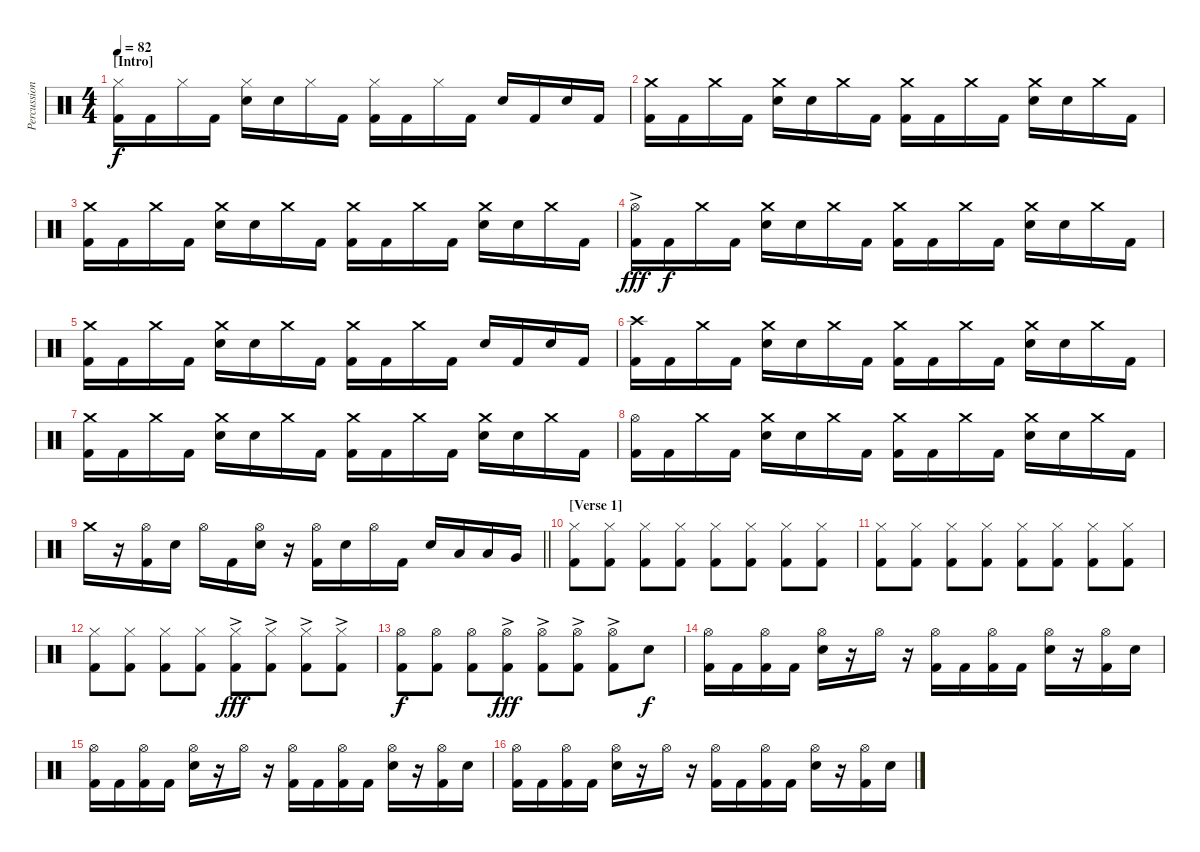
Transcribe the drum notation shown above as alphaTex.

\track ("Percussion" "Percussion") {instrument percussion}
\staff {score}
\articulation defaults
\ts (4 4)
\section ("" "[Intro]")
\tempo 82
\clef neutral
\ks c
("Hi-Hat (closed)" "Kick (hit) 2").16{dy f} "Kick (hit) 2".16 "Hi-Hat (closed)".16 "Kick (hit) 2".16 ("Hi-Hat (closed)" "Electric Snare (hit)").16 "Electric Snare (hit)".16 "Hi-Hat (closed)".16 "Kick (hit) 2".16 ("Hi-Hat (closed)" "Kick (hit) 2").16 "Kick (hit) 2".16 "Hi-Hat (closed)".16 "Kick (hit) 2".16 "Electric Snare (hit)".16 "Kick (hit) 2".16 "Electric Snare (hit)".16 "Kick (hit) 2".16 |
("Crash medium (hit)" "Kick (hit) 2").16 "Kick (hit) 2".16 "Crash medium (hit)".16 "Kick (hit) 2".16 ("Crash medium (hit)" "Electric Snare (hit)").16 "Electric Snare (hit)".16 "Crash medium (hit)".16 "Kick (hit) 2".16 ("Crash medium (hit)" "Kick (hit) 2").16 "Kick (hit) 2".16 "Crash medium (hit)".16 "Kick (hit) 2".16 ("Crash medium (hit)" "Electric Snare (hit)").16 "Electric Snare (hit)".16 "Crash medium (hit)".16 "Kick (hit) 2".16 |
("Crash medium (hit)" "Kick (hit) 2").16 "Kick (hit) 2".16 "Crash medium (hit)".16 "Kick (hit) 2".16 ("Crash medium (hit)" "Electric Snare (hit)").16 "Electric Snare (hit)".16 "Crash medium (hit)".16 "Kick (hit) 2".16 ("Crash medium (hit)" "Kick (hit) 2").16 "Kick (hit) 2".16 "Crash medium (hit)".16 "Kick (hit) 2".16 ("Crash medium (hit)" "Electric Snare (hit)").16 "Electric Snare (hit)".16 "Crash medium (hit)".16 "Kick (hit) 2".16 |
("Hi-Hat (open)"{ac} "Kick (hit) 2").16{dy fff} "Kick (hit) 2".16{dy f} "Crash medium (hit)".16 "Kick (hit) 2".16 ("Crash medium (hit)" "Electric Snare (hit)").16 "Electric Snare (hit)".16 "Crash medium (hit)".16 "Kick (hit) 2".16 ("Crash medium (hit)" "Kick (hit) 2").16 "Kick (hit) 2".16 "Crash medium (hit)".16 "Kick (hit) 2".16 ("Crash medium (hit)" "Electric Snare (hit)").16 "Electric Snare (hit)".16 "Crash medium (hit)".16 "Kick (hit) 2".16 |
("Crash medium (hit)" "Kick (hit) 2").16 "Kick (hit) 2".16 "Crash medium (hit)".16 "Kick (hit) 2".16 ("Crash medium (hit)" "Electric Snare (hit)").16 "Electric Snare (hit)".16 "Crash medium (hit)".16 "Kick (hit) 2".16 ("Crash medium (hit)" "Kick (hit) 2").16 "Kick (hit) 2".16 "Crash medium (hit)".16 "Kick (hit) 2".16 "Electric Snare (hit)".16 "Kick (hit) 2".16 "Electric Snare (hit)".16 "Kick (hit) 2".16 |
("Crash high (hit)" "Kick (hit) 2").16 "Kick (hit) 2".16 "Crash medium (hit)".16 "Kick (hit) 2".16 ("Crash medium (hit)" "Electric Snare (hit)").16 "Electric Snare (hit)".16 "Crash medium (hit)".16 "Kick (hit) 2".16 ("Crash medium (hit)" "Kick (hit) 2").16 "Kick (hit) 2".16 "Crash medium (hit)".16 "Kick (hit) 2".16 ("Crash medium (hit)" "Electric Snare (hit)").16 "Electric Snare (hit)".16 "Crash medium (hit)".16 "Kick (hit) 2".16 |
("Crash medium (hit)" "Kick (hit) 2").16 "Kick (hit) 2".16 "Crash medium (hit)".16 "Kick (hit) 2".16 ("Crash medium (hit)" "Electric Snare (hit)").16 "Electric Snare (hit)".16 "Crash medium (hit)".16 "Kick (hit) 2".16 ("Crash medium (hit)" "Kick (hit) 2").16 "Kick (hit) 2".16 "Crash medium (hit)".16 "Kick (hit) 2".16 ("Crash medium (hit)" "Electric Snare (hit)").16 "Electric Snare (hit)".16 "Crash medium (hit)".16 "Kick (hit) 2".16 |
("Hi-Hat (open)" "Kick (hit) 2").16 "Kick (hit) 2".16 "Crash medium (hit)".16 "Kick (hit) 2".16 ("Crash medium (hit)" "Electric Snare (hit)").16 "Electric Snare (hit)".16 "Crash medium (hit)".16 "Kick (hit) 2".16 ("Crash medium (hit)" "Kick (hit) 2").16 "Kick (hit) 2".16 "Crash medium (hit)".16 "Kick (hit) 2".16 ("Crash medium (hit)" "Electric Snare (hit)").16 "Electric Snare (hit)".16 "Crash medium (hit)".16 "Kick (hit) 2".16 |
\barLineRight lightlight "Crash medium (hit)".16
r.16 ("Hi-Hat (open)" "Kick (hit) 2").16 "Electric Snare (hit)".16 "Hi-Hat (open)".16 "Kick (hit) 2".16 ("Hi-Hat (open)" "Electric Snare (hit)").16 r.16 ("Hi-Hat (open)" "Kick (hit) 2").16 "Electric Snare (hit)".16 "Hi-Hat (open)".16 "Kick (hit) 2".16 "Electric Snare (hit)".16 "Low Tom (hit)".16 "Low Floor Tom (hit)".16 "Very Low Tom (hit)".16 |
\section ("" "[Verse 1]")
("Hi-Hat (closed)" "Kick (hit) 2").8 ("Hi-Hat (closed)" "Kick (hit) 2").8 ("Hi-Hat (closed)" "Kick (hit) 2").8 ("Hi-Hat (closed)" "Kick (hit) 2").8 ("Hi-Hat (closed)" "Kick (hit) 2").8 ("Hi-Hat (closed)" "Kick (hit) 2").8 ("Hi-Hat (closed)" "Kick (hit) 2").8 ("Hi-Hat (closed)" "Kick (hit) 2").8 |
("Hi-Hat (closed)" "Kick (hit) 2").8 ("Hi-Hat (closed)" "Kick (hit) 2").8 ("Hi-Hat (closed)" "Kick (hit) 2").8 ("Hi-Hat (closed)" "Kick (hit) 2").8 ("Hi-Hat (closed)" "Kick (hit) 2").8 ("Hi-Hat (closed)" "Kick (hit) 2").8 ("Hi-Hat (closed)" "Kick (hit) 2").8 ("Hi-Hat (closed)" "Kick (hit) 2").8 |
("Hi-Hat (closed)" "Kick (hit) 2").8 ("Hi-Hat (closed)" "Kick (hit) 2").8 ("Hi-Hat (closed)" "Kick (hit) 2").8 ("Hi-Hat (closed)" "Kick (hit) 2").8 ("Hi-Hat (closed)"{ac} "Kick (hit) 2").8{dy fff} ("Hi-Hat (closed)"{ac} "Kick (hit) 2").8 ("Hi-Hat (closed)"{ac} "Kick (hit) 2").8 ("Hi-Hat (closed)"{ac} "Kick (hit) 2").8 |
("Hi-Hat (open)" "Kick (hit) 2").8{dy f} ("Hi-Hat (open)" "Kick (hit) 2").8 ("Hi-Hat (open)" "Kick (hit) 2").8 ("Hi-Hat (open)"{ac} "Kick (hit) 2").8{dy fff} ("Hi-Hat (open)"{ac} "Kick (hit) 2").8 ("Hi-Hat (open)"{ac} "Kick (hit) 2").8 ("Hi-Hat (open)"{ac} "Kick (hit) 2").8 "Electric Snare (hit)".8{dy f} |
("Hi-Hat (open)" "Kick (hit) 2").16 "Kick (hit) 2".16 ("Hi-Hat (open)" "Kick (hit) 2").16 "Kick (hit) 2".16 ("Hi-Hat (open)" "Electric Snare (hit)").16 r.16 "Hi-Hat (open)".16 r.16 ("Hi-Hat (open)" "Kick (hit) 2").16 "Kick (hit) 2".16 ("Hi-Hat (open)" "Kick (hit) 2").16 "Kick (hit) 2".16 ("Hi-Hat (open)" "Electric Snare (hit)").16 r.16 ("Hi-Hat (open)" "Kick (hit) 2").16 "Electric Snare (hit)".16 |
("Hi-Hat (open)" "Kick (hit) 2").16 "Kick (hit) 2".16 ("Hi-Hat (open)" "Kick (hit) 2").16 "Kick (hit) 2".16 ("Hi-Hat (open)" "Electric Snare (hit)").16 r.16 "Hi-Hat (open)".16 r.16 ("Hi-Hat (open)" "Kick (hit) 2").16 "Kick (hit) 2".16 ("Hi-Hat (open)" "Kick (hit) 2").16 "Kick (hit) 2".16 ("Hi-Hat (open)" "Electric Snare (hit)").16 r.16 ("Hi-Hat (open)" "Kick (hit) 2").16 "Electric Snare (hit)".16 |
("Hi-Hat (open)" "Kick (hit) 2").16 "Kick (hit) 2".16 ("Hi-Hat (open)" "Kick (hit) 2").16 "Kick (hit) 2".16 ("Hi-Hat (open)" "Electric Snare (hit)").16 r.16 "Hi-Hat (open)".16 r.16 ("Hi-Hat (open)" "Kick (hit) 2").16 "Kick (hit) 2".16 ("Hi-Hat (open)" "Kick (hit) 2").16 "Kick (hit) 2".16 ("Hi-Hat (open)" "Electric Snare (hit)").16 r.16 ("Hi-Hat (open)" "Kick (hit) 2").16 "Electric Snare (hit)".16
